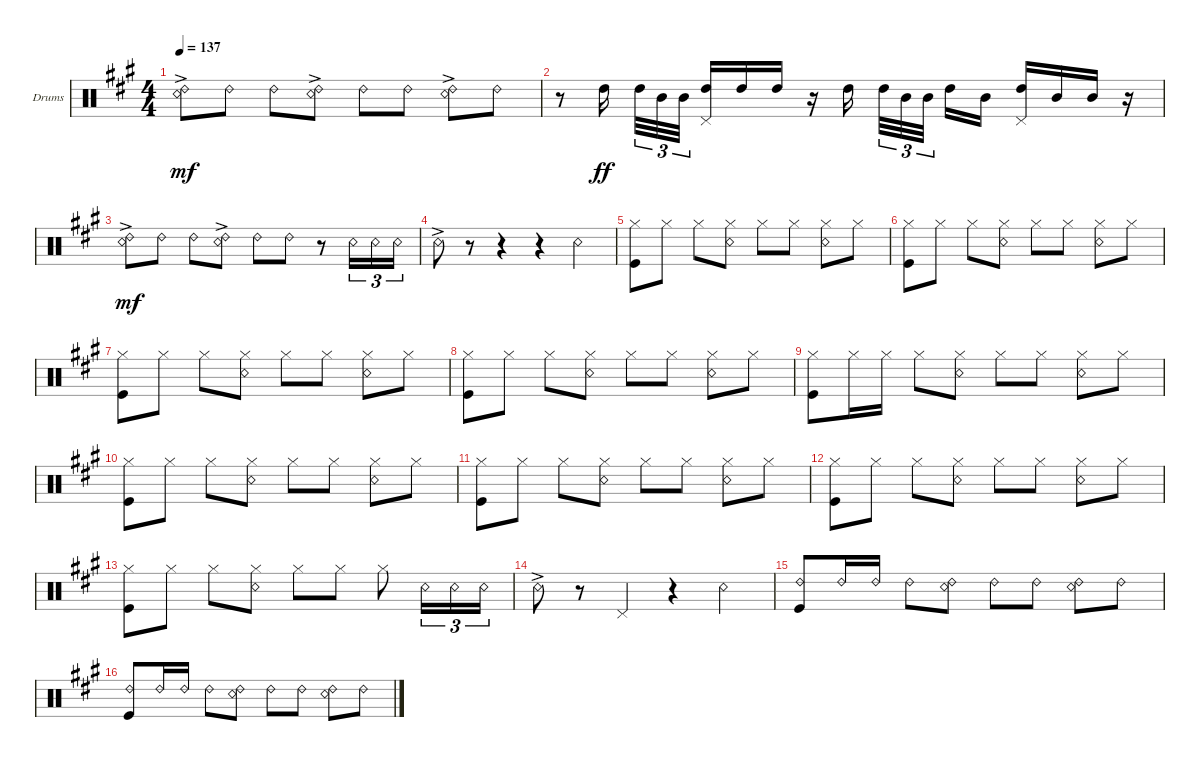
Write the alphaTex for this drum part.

\defaultSystemsLayout 4
\bracketExtendMode groupsimilarinstruments
\firstSystemTrackNameOrientation horizontal
\otherSystemsTrackNameOrientation horizontal
\track ("Drums" "Drums") {instrument percussion}
\staff {score}
\articulation defaults
\ts (4 4)
\tempo 137
\clef neutral
\scale
0.526971
\ks a
("Ride (bell) 2"{ac} "Snare (rim shot)").8{dy mf} "Ride (bell) 2".8 "Ride (bell) 2".8 ("Ride (bell) 2"{ac} "Snare (rim shot)").8 "Ride (bell) 2".8 "Ride (bell) 2".8 ("Ride (bell) 2"{ac} "Snare (rim shot)").8 "Ride (bell) 2".8 |
\scale
0.236515 r.8 "High Tom (hit)".16{dy ff} "High Tom (hit)".32{tu (3 2)} "Mid Tom (hit)".32{tu (3 2)} "Mid Tom (hit)".32{tu (3 2)} ("High Tom (hit)" "Pedal Hi-Hat (hit)").16 "High Tom (hit)".16 "High Tom (hit)".16 r.16 "High Tom (hit)".16 "High Tom (hit)".32{tu (3 2)} "Mid Tom (hit)".32{tu (3 2)} "Mid Tom (hit)".32{tu (3 2)} "High Tom (hit)".16 "Mid Tom (hit)".16 ("High Tom (hit)" "Pedal Hi-Hat (hit)").16 "Mid Tom (hit)".16 "Mid Tom (hit)".16 r.16 |
\scale
0.236515 ("Ride (bell) 2"{ac} "Snare (rim shot)").8{dy mf} "Ride (bell) 2".8 "Ride (bell) 2".8 ("Ride (bell) 2"{ac} "Snare (rim shot)").8 "Ride (bell) 2".8 "Ride (bell) 2".8 r.8 "Snare (rim shot)".16{tu (3 2)} "Snare (rim shot)".16{tu (3 2)} "Snare (rim shot)".16{tu (3 2)} |
\scale
0.333333 "Snare (rim shot)"{ac}.8 r.8 r.4 r.4 "Snare (rim shot)".4 |
\scale
0.333333 ("Hi-Hat (closed)" "Kick (hit)").8 "Hi-Hat (closed)".8 "Hi-Hat (closed)".8 ("Hi-Hat (closed)" "Snare (rim shot)").8 "Hi-Hat (closed)".8 "Hi-Hat (closed)".8 ("Hi-Hat (closed)" "Snare (rim shot)").8 "Hi-Hat (closed)".8 |
\scale
0.333333 ("Hi-Hat (closed)" "Kick (hit)").8 "Hi-Hat (closed)".8 "Hi-Hat (closed)".8 ("Hi-Hat (closed)" "Snare (rim shot)").8 "Hi-Hat (closed)".8 "Hi-Hat (closed)".8 ("Hi-Hat (closed)" "Snare (rim shot)").8 "Hi-Hat (closed)".8 |
\scale
0.333333 ("Hi-Hat (closed)" "Kick (hit)").8 "Hi-Hat (closed)".8 "Hi-Hat (closed)".8 ("Hi-Hat (closed)" "Snare (rim shot)").8 "Hi-Hat (closed)".8 "Hi-Hat (closed)".8 ("Hi-Hat (closed)" "Snare (rim shot)").8 "Hi-Hat (closed)".8 |
\scale
0.333333 ("Hi-Hat (closed)" "Kick (hit)").8 "Hi-Hat (closed)".8 "Hi-Hat (closed)".8 ("Hi-Hat (closed)" "Snare (rim shot)").8 "Hi-Hat (closed)".8 "Hi-Hat (closed)".8 ("Hi-Hat (closed)" "Snare (rim shot)").8 "Hi-Hat (closed)".8 |
\scale
0.333333 ("Hi-Hat (closed)" "Kick (hit)").8 "Hi-Hat (closed)".16 "Hi-Hat (closed)".16 "Hi-Hat (closed)".8 ("Hi-Hat (closed)" "Snare (rim shot)").8 "Hi-Hat (closed)".8 "Hi-Hat (closed)".8 ("Hi-Hat (closed)" "Snare (rim shot)").8 "Hi-Hat (closed)".8 |
\scale
0.333333 ("Hi-Hat (closed)" "Kick (hit)").8 "Hi-Hat (closed)".8 "Hi-Hat (closed)".8 ("Hi-Hat (closed)" "Snare (rim shot)").8 "Hi-Hat (closed)".8 "Hi-Hat (closed)".8 ("Hi-Hat (closed)" "Snare (rim shot)").8 "Hi-Hat (closed)".8 |
\scale
0.333333 ("Hi-Hat (closed)" "Kick (hit)").8 "Hi-Hat (closed)".8 "Hi-Hat (closed)".8 ("Hi-Hat (closed)" "Snare (rim shot)").8 "Hi-Hat (closed)".8 "Hi-Hat (closed)".8 ("Hi-Hat (closed)" "Snare (rim shot)").8 "Hi-Hat (closed)".8 |
\scale
0.333333 ("Hi-Hat (closed)" "Kick (hit)").8 "Hi-Hat (closed)".8 "Hi-Hat (closed)".8 ("Hi-Hat (closed)" "Snare (rim shot)").8 "Hi-Hat (closed)".8 "Hi-Hat (closed)".8 ("Hi-Hat (closed)" "Snare (rim shot)").8 "Hi-Hat (closed)".8 |
\scale
0.333333 ("Hi-Hat (closed)" "Kick (hit)").8 "Hi-Hat (closed)".8 "Hi-Hat (closed)".8 ("Hi-Hat (closed)" "Snare (rim shot)").8 "Hi-Hat (closed)".8 "Hi-Hat (closed)".8 "Hi-Hat (closed)".8 "Snare (rim shot)".16{tu (3 2)} "Snare (rim shot)".16{tu (3 2)} "Snare (rim shot)".16{tu (3 2)} |
\scale
0.333333 "Snare (rim shot)"{ac}.8 r.8 "Pedal Hi-Hat (hit)".4 r.4 "Snare (rim shot)".4 |
\scale
0.333333 ("Kick (hit)" "Ride (bell) 2").8 "Ride (bell) 2".16 "Ride (bell) 2".16 "Ride (bell) 2".8 ("Snare (rim shot)" "Ride (bell) 2").8 "Ride (bell) 2".8 "Ride (bell) 2".8 ("Snare (rim shot)" "Ride (bell) 2").8 "Ride (bell) 2".8 |
\scale
0.333333 ("Kick (hit)" "Ride (bell) 2").8 "Ride (bell) 2".16 "Ride (bell) 2".16 "Ride (bell) 2".8 ("Snare (rim shot)" "Ride (bell) 2").8 "Ride (bell) 2".8 "Ride (bell) 2".8 ("Snare (rim shot)" "Ride (bell) 2").8 "Ride (bell) 2".8
